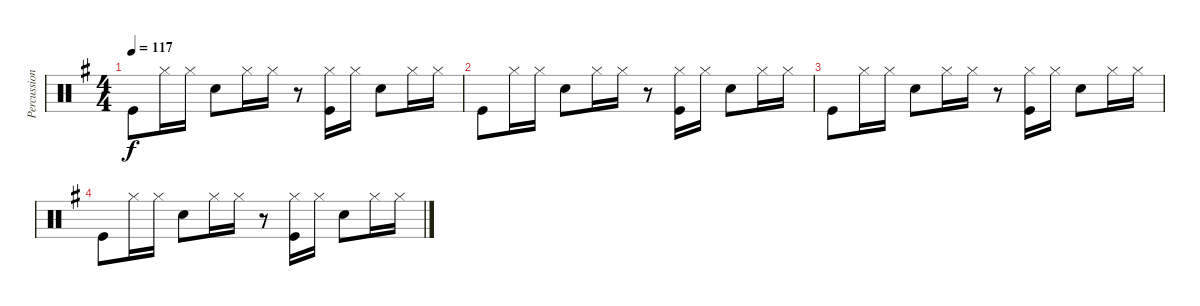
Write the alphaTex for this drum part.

\track ("Percussion" "Percussion") {instrument percussion}
\staff {score}
\articulation defaults
\ts (4 4)
\tempo 117
\clef neutral
\ks g "Kick (hit)".8{dy f} "Hi-Hat (closed)".16 "Hi-Hat (closed)".16 "Snare (hit) 2".8 "Hi-Hat (closed)".16 "Hi-Hat (closed)".16
r.8 ("Hi-Hat (closed)" "Kick (hit)").16 "Hi-Hat (closed)".16 "Snare (hit) 2".8 "Hi-Hat (closed)".16 "Hi-Hat (closed)".16 |
"Kick (hit)".8 "Hi-Hat (closed)".16 "Hi-Hat (closed)".16 "Snare (hit) 2".8 "Hi-Hat (closed)".16 "Hi-Hat (closed)".16 r.8 ("Hi-Hat (closed)" "Kick (hit)").16 "Hi-Hat (closed)".16 "Snare (hit) 2".8 "Hi-Hat (closed)".16 "Hi-Hat (closed)".16 |
"Kick (hit)".8 "Hi-Hat (closed)".16 "Hi-Hat (closed)".16 "Snare (hit) 2".8 "Hi-Hat (closed)".16 "Hi-Hat (closed)".16 r.8 ("Hi-Hat (closed)" "Kick (hit)").16 "Hi-Hat (closed)".16 "Snare (hit) 2".8 "Hi-Hat (closed)".16 "Hi-Hat (closed)".16 |
"Kick (hit)".8 "Hi-Hat (closed)".16 "Hi-Hat (closed)".16 "Snare (hit) 2".8 "Hi-Hat (closed)".16 "Hi-Hat (closed)".16 r.8 ("Hi-Hat (closed)" "Kick (hit)").16 "Hi-Hat (closed)".16 "Snare (hit) 2".8 "Hi-Hat (closed)".16 "Hi-Hat (closed)".16
